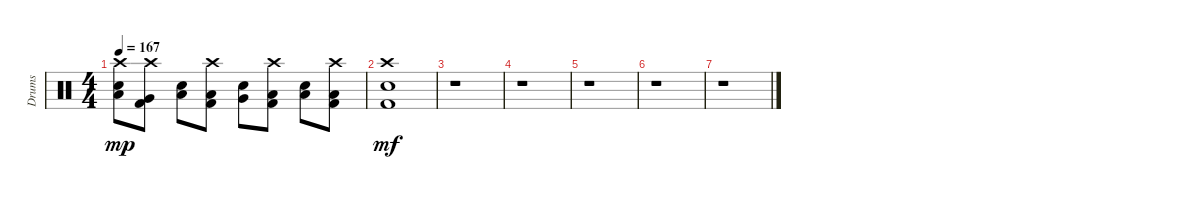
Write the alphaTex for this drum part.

\track ("Drums" "Drums") {instrument percussion}
\staff {score}
\articulation defaults
\ts (4 4)
\tempo 167
\clef neutral
\ks c
("Crash high (hit)" "Electric Snare (hit)" "Low Floor Tom (hit)").8{dy mp} ("Kick (hit) 2" "Very Low Tom (hit)" "Crash high (hit)").8 ("Electric Snare (hit)" "Low Floor Tom (hit)").8 ("Low Floor Tom (hit)" "Kick (hit) 2" "Crash high (hit)").8 ("Electric Snare (hit)" "Very Low Tom (hit)").8 ("Kick (hit) 2" "Low Floor Tom (hit)" "Crash high (hit)").8 ("Electric Snare (hit)" "Low Floor Tom (hit)").8 ("Kick (hit) 2" "Low Floor Tom (hit)" "Crash high (hit)").8 |
("Crash high (hit)" "Electric Snare (hit)" "Kick (hit) 2").1{dy mf} |
r.1 |
r.1 |
r.1 |
r.1 |
r.1
